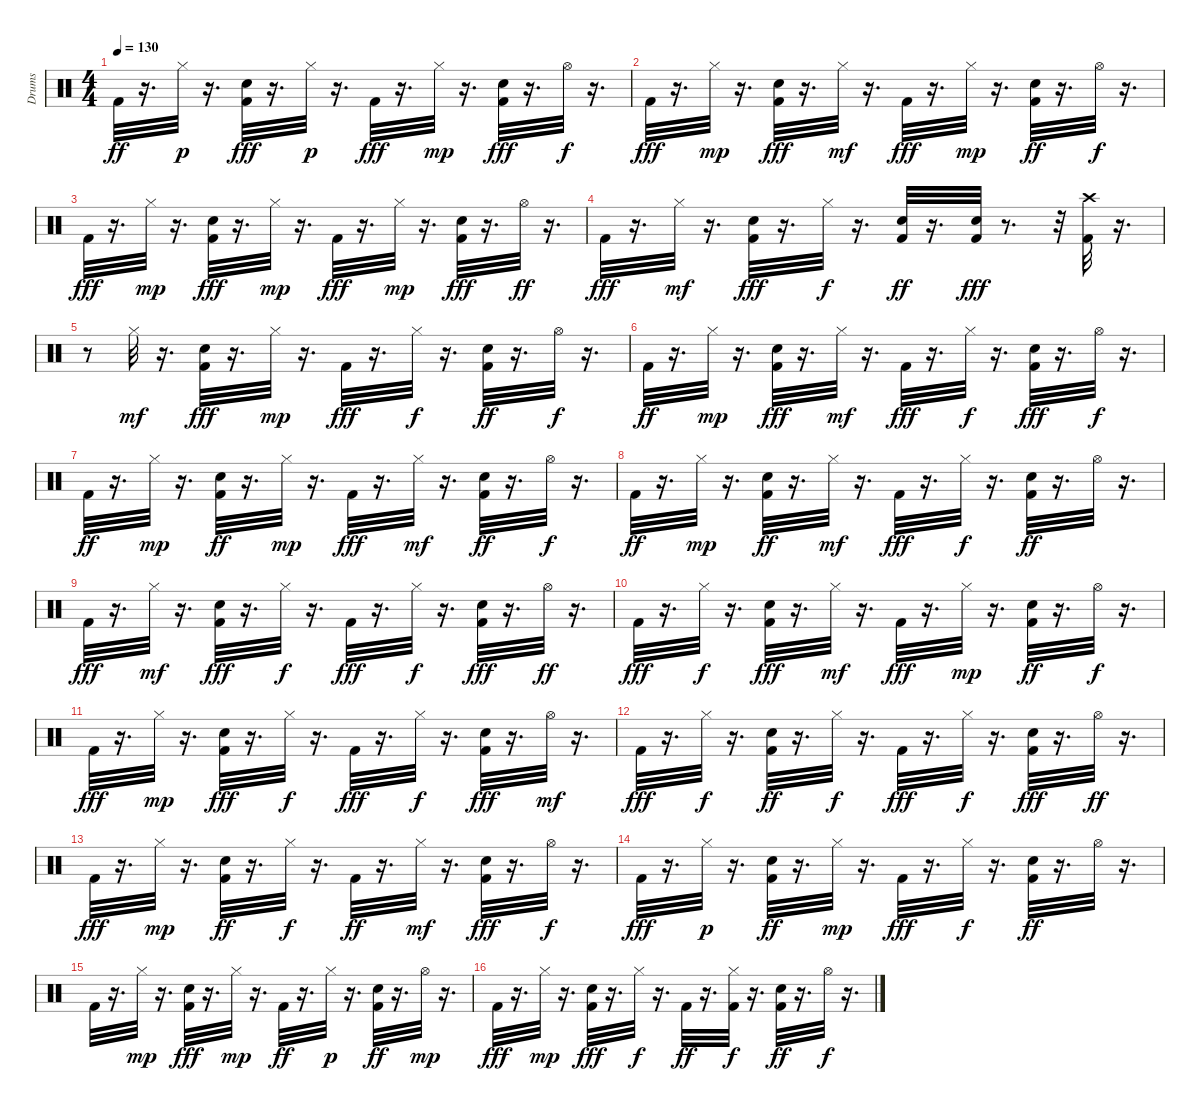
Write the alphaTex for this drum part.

\track ("Drums               " "Drums     ") {instrument percussion}
\staff {score}
\articulation defaults
\ts (4 4)
\tempo 130
\clef neutral
\ks c "Kick (hit) 2".32{dy ff}
r.16{d} "Hi-Hat (closed)".32{dy p} r.16{d} ("Kick (hit) 2" "Snare (hit) 2").32{dy fff} r.16{d} "Hi-Hat (closed)".32{dy p} r.16{d} "Kick (hit) 2".32{dy fff} r.16{d} "Hi-Hat (closed)".32{dy mp} r.16{d} ("Kick (hit) 2" "Snare (hit) 2").32{dy fff} r.16{d} "Hi-Hat (open)".32{dy f} r.16{d} |
"Kick (hit) 2".32{dy fff} r.16{d} "Hi-Hat (closed)".32{dy mp} r.16{d} ("Kick (hit) 2" "Snare (hit) 2").32{dy fff} r.16{d} "Hi-Hat (closed)".32{dy mf} r.16{d} "Kick (hit) 2".32{dy fff} r.16{d} "Hi-Hat (closed)".32{dy mp} r.16{d} ("Kick (hit) 2" "Snare (hit) 2").32{dy ff} r.16{d} "Hi-Hat (open)".32{dy f} r.16{d} |
"Kick (hit) 2".32{dy fff} r.16{d} "Hi-Hat (closed)".32{dy mp} r.16{d} ("Kick (hit) 2" "Snare (hit) 2").32{dy fff} r.16{d} "Hi-Hat (closed)".32{dy mp} r.16{d} "Kick (hit) 2".32{dy fff} r.16{d} "Hi-Hat (closed)".32{dy mp} r.16{d} ("Kick (hit) 2" "Snare (hit) 2").32{dy fff} r.16{d} "Hi-Hat (open)".32{dy ff} r.16{d} |
"Kick (hit) 2".32{dy fff} r.16{d} "Hi-Hat (closed)".32{dy mf} r.16{d} ("Kick (hit) 2" "Snare (hit) 2").32{dy fff} r.16{d} "Hi-Hat (closed)".32{dy f} r.16{d} ("Kick (hit) 2" "Snare (hit) 2").32{dy ff} r.16{d} ("Kick (hit) 2" "Snare (hit) 2").32{dy fff} r.8{d} r.32 ("Kick (hit) 2" "Crash high (hit)").32 r.16{d} |
r.8 "Hi-Hat (closed)".32{dy mf} r.16{d} ("Kick (hit) 2" "Snare (hit) 2").32{dy fff} r.16{d} "Hi-Hat (closed)".32{dy mp} r.16{d} "Kick (hit) 2".32{dy fff} r.16{d} "Hi-Hat (closed)".32{dy f} r.16{d} ("Kick (hit) 2" "Snare (hit) 2").32{dy ff} r.16{d} "Hi-Hat (open)".32{dy f} r.16{d} |
"Kick (hit) 2".32{dy ff} r.16{d} "Hi-Hat (closed)".32{dy mp} r.16{d} ("Kick (hit) 2" "Snare (hit) 2").32{dy fff} r.16{d} "Hi-Hat (closed)".32{dy mf} r.16{d} "Kick (hit) 2".32{dy fff} r.16{d} "Hi-Hat (closed)".32{dy f} r.16{d} ("Kick (hit) 2" "Snare (hit) 2").32{dy fff} r.16{d} "Hi-Hat (open)".32{dy f} r.16{d} |
"Kick (hit) 2".32{dy ff} r.16{d} "Hi-Hat (closed)".32{dy mp} r.16{d} ("Kick (hit) 2" "Snare (hit) 2").32{dy ff} r.16{d} "Hi-Hat (closed)".32{dy mp} r.16{d} "Kick (hit) 2".32{dy fff} r.16{d} "Hi-Hat (closed)".32{dy mf} r.16{d} ("Kick (hit) 2" "Snare (hit) 2").32{dy ff} r.16{d} "Hi-Hat (open)".32{dy f} r.16{d} |
"Kick (hit) 2".32{dy ff} r.16{d} "Hi-Hat (closed)".32{dy mp} r.16{d} ("Kick (hit) 2" "Snare (hit) 2").32{dy ff} r.16{d} "Hi-Hat (closed)".32{dy mf} r.16{d} "Kick (hit) 2".32{dy fff} r.16{d} "Hi-Hat (closed)".32{dy f} r.16{d} ("Kick (hit) 2" "Snare (hit) 2").32{dy ff} r.16{d} "Hi-Hat (open)".32 r.16{d} |
"Kick (hit) 2".32{dy fff} r.16{d} "Hi-Hat (closed)".32{dy mf} r.16{d} ("Kick (hit) 2" "Snare (hit) 2").32{dy fff} r.16{d} "Hi-Hat (closed)".32{dy f} r.16{d} "Kick (hit) 2".32{dy fff} r.16{d} "Hi-Hat (closed)".32{dy f} r.16{d} ("Kick (hit) 2" "Snare (hit) 2").32{dy fff} r.16{d} "Hi-Hat (open)".32{dy ff} r.16{d} |
"Kick (hit) 2".32{dy fff} r.16{d} "Hi-Hat (closed)".32{dy f} r.16{d} ("Kick (hit) 2" "Snare (hit) 2").32{dy fff} r.16{d} "Hi-Hat (closed)".32{dy mf} r.16{d} "Kick (hit) 2".32{dy fff} r.16{d} "Hi-Hat (closed)".32{dy mp} r.16{d} ("Kick (hit) 2" "Snare (hit) 2").32{dy ff} r.16{d} "Hi-Hat (open)".32{dy f} r.16{d} |
"Kick (hit) 2".32{dy fff} r.16{d} "Hi-Hat (closed)".32{dy mp} r.16{d} ("Kick (hit) 2" "Snare (hit) 2").32{dy fff} r.16{d} "Hi-Hat (closed)".32{dy f} r.16{d} "Kick (hit) 2".32{dy fff} r.16{d} "Hi-Hat (closed)".32{dy f} r.16{d} ("Kick (hit) 2" "Snare (hit) 2").32{dy fff} r.16{d} "Hi-Hat (open)".32{dy mf} r.16{d} |
"Kick (hit) 2".32{dy fff} r.16{d} "Hi-Hat (closed)".32{dy f} r.16{d} ("Kick (hit) 2" "Snare (hit) 2").32{dy ff} r.16{d} "Hi-Hat (closed)".32{dy f} r.16{d} "Kick (hit) 2".32{dy fff} r.16{d} "Hi-Hat (closed)".32{dy f} r.16{d} ("Kick (hit) 2" "Snare (hit) 2").32{dy fff} r.16{d} "Hi-Hat (open)".32{dy ff} r.16{d} |
"Kick (hit) 2".32{dy fff} r.16{d} "Hi-Hat (closed)".32{dy mp} r.16{d} ("Kick (hit) 2" "Snare (hit) 2").32{dy ff} r.16{d} "Hi-Hat (closed)".32{dy f} r.16{d} "Kick (hit) 2".32{dy ff} r.16{d} "Hi-Hat (closed)".32{dy mf} r.16{d} ("Kick (hit) 2" "Snare (hit) 2").32{dy fff} r.16{d} "Hi-Hat (open)".32{dy f} r.16{d} |
"Kick (hit) 2".32{dy fff} r.16{d} "Hi-Hat (closed)".32{dy p} r.16{d} ("Kick (hit) 2" "Snare (hit) 2").32{dy ff} r.16{d} "Hi-Hat (closed)".32{dy mp} r.16{d} "Kick (hit) 2".32{dy fff} r.16{d} "Hi-Hat (closed)".32{dy f} r.16{d} ("Kick (hit) 2" "Snare (hit) 2").32{dy ff} r.16{d} "Hi-Hat (open)".32 r.16{d} |
"Kick (hit) 2".32 r.16{d} "Hi-Hat (closed)".32{dy mp} r.16{d} ("Kick (hit) 2" "Snare (hit) 2").32{dy fff} r.16{d} "Hi-Hat (closed)".32{dy mp} r.16{d} "Kick (hit) 2".32{dy ff} r.16{d} "Hi-Hat (closed)".32{dy p} r.16{d} ("Kick (hit) 2" "Snare (hit) 2").32{dy ff} r.16{d} "Hi-Hat (open)".32{dy mp} r.16{d} |
"Kick (hit) 2".32{dy fff} r.16{d} "Hi-Hat (closed)".32{dy mp} r.16{d} ("Kick (hit) 2" "Snare (hit) 2").32{dy fff} r.16{d} "Hi-Hat (closed)".32{dy f} r.16{d} "Kick (hit) 2".32{dy ff} r.16{d} ("Kick (hit) 2" "Hi-Hat (closed)").32{dy f} r.16{d} ("Kick (hit) 2" "Snare (hit) 2").32{dy ff} r.16{d} "Hi-Hat (open)".32{dy f} r.16{d}
